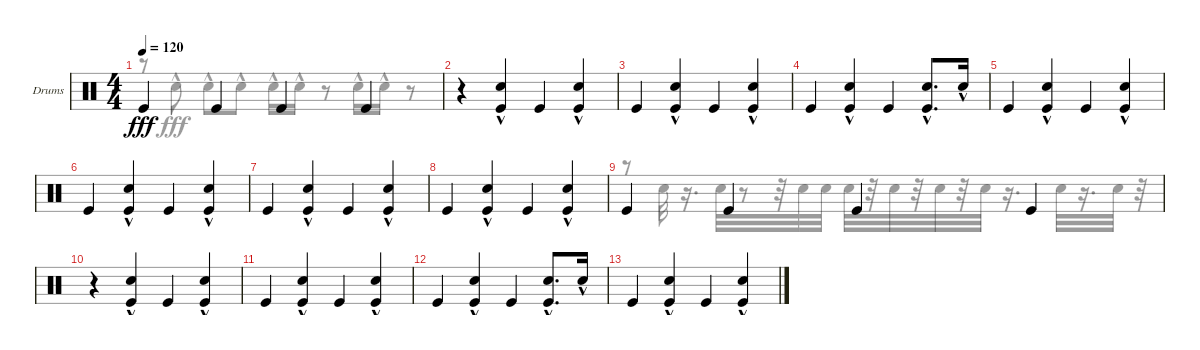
\defaultSystemsLayout 4
\bracketExtendMode nobrackets
\firstSystemTrackNameOrientation horizontal
\otherSystemsTrackNameOrientation horizontal
\track ("Drumkit" "Drums") {instrument percussion}
\staff {score}
\articulation defaults
\voice
\ts (4 4)
\tempo 120
\clef neutral
\ks c "Kick (hit)".4{dy fff} "Kick (hit)".4 "Kick (hit)".4 "Kick (hit)".4
|
r.4 ("Kick (hit)" "Snare (hit) 2"{hac}).4 "Kick (hit)".4 ("Kick (hit)" "Snare (hit) 2"{hac}).4 |
"Kick (hit)".4 ("Kick (hit)" "Snare (hit) 2"{hac}).4 "Kick (hit)".4 ("Kick (hit)" "Snare (hit) 2"{hac}).4 |
"Kick (hit)".4 ("Kick (hit)" "Snare (hit) 2"{hac}).4 "Kick (hit)".4 ("Kick (hit)" "Snare (hit) 2"{hac}).8{d} "Snare (hit) 2"{hac}.16 |
"Kick (hit)".4 ("Kick (hit)" "Snare (hit) 2"{hac}).4 "Kick (hit)".4 ("Kick (hit)" "Snare (hit) 2"{hac}).4 |
"Kick (hit)".4 ("Kick (hit)" "Snare (hit) 2"{hac}).4 "Kick (hit)".4 ("Kick (hit)" "Snare (hit) 2"{hac}).4 |
"Kick (hit)".4 ("Kick (hit)" "Snare (hit) 2"{hac}).4 "Kick (hit)".4 ("Kick (hit)" "Snare (hit) 2"{hac}).4 |
"Kick (hit)".4 ("Kick (hit)" "Snare (hit) 2"{hac}).4 "Kick (hit)".4 ("Kick (hit)" "Snare (hit) 2"{hac}).4 |
"Kick (hit)".4 "Kick (hit)".4 "Kick (hit)".4 "Kick (hit)".4 |
r.4 ("Kick (hit)" "Snare (hit) 2"{hac}).4 "Kick (hit)".4 ("Kick (hit)" "Snare (hit) 2"{hac}).4 |
"Kick (hit)".4 ("Kick (hit)" "Snare (hit) 2"{hac}).4 "Kick (hit)".4 ("Kick (hit)" "Snare (hit) 2"{hac}).4 |
"Kick (hit)".4 ("Kick (hit)" "Snare (hit) 2"{hac}).4 "Kick (hit)".4 ("Kick (hit)" "Snare (hit) 2"{hac}).8{d} "Snare (hit) 2"{hac}.16 |
"Kick (hit)".4 ("Kick (hit)" "Snare (hit) 2"{hac}).4 "Kick (hit)".4 ("Kick (hit)" "Snare (hit) 2"{hac}).4
\voice
\clef neutral
\ottava regular
\simile none
\ks c
r.8{dy fff} "Snare (hit) 2"{hac}.8 "Snare (hit) 2"{hac}.8 "Snare (hit) 2"{hac}.8 "Snare (hit) 2"{hac}.16 "Snare (hit) 2"{hac}.16 r.8 "Snare (hit) 2"{hac}.16 "Snare (hit) 2"{hac}.16 r.8 |
|
|
|
|
|
|
|
r.8 "Snare (hit) 2".32 r.16{d} "Snare (hit) 2".32 r.8 r.32 "Snare (hit) 2".32 "Snare (hit) 2".32 "Snare (hit) 2".32 r.32 "Snare (hit) 2".32 r.32 "Snare (hit) 2".32 r.32 "Snare (hit) 2".32 r.16{d} "Snare (hit) 2".32 r.16{d} "Snare (hit) 2".32 r.32 |
|
|
|
